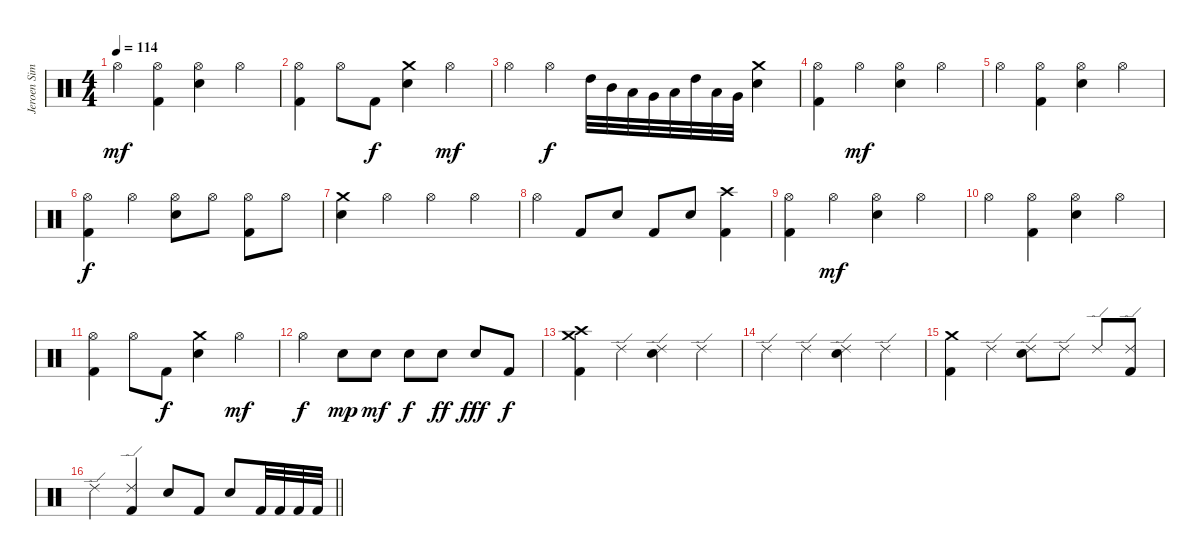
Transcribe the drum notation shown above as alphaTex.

\track ("Jeroen Simons" "Jeroen Sim") {instrument percussion}
\staff {score}
\articulation defaults
\ts (4 4)
\tempo 114
\clef neutral
\ks c "Hi-Hat (open)".4{dy mf}
("Hi-Hat (open)" "Kick (hit) 2").4 ("Hi-Hat (open)" "Electric Snare (hit)").4 "Hi-Hat (open)".4 |
("Hi-Hat (open)" "Kick (hit) 2").4 "Hi-Hat (open)".8 "Kick (hit) 2".8{dy f} ("Crash medium (hit)" "Electric Snare (hit)").4 "Hi-Hat (open)".4{dy mf} |
"Hi-Hat (open)".4 "Hi-Hat (open)".4{dy f} "High Tom (hit)".32 "Mid Tom (hit)".32 "Low Tom (hit)".32 "Very Low Tom (hit)".32 "Low Floor Tom (hit)".32 "High Tom (hit)".32 "Low Floor Tom (hit)".32 "Very Low Tom (hit)".32 ("Crash medium (hit)" "Electric Snare (hit)").4 |
("Hi-Hat (open)" "Kick (hit) 2").4 "Hi-Hat (open)".4{dy mf} ("Hi-Hat (open)" "Electric Snare (hit)").4 "Hi-Hat (open)".4 |
"Hi-Hat (open)".4 ("Hi-Hat (open)" "Kick (hit) 2").4 ("Hi-Hat (open)" "Electric Snare (hit)").4 "Hi-Hat (open)".4 |
("Hi-Hat (open)" "Kick (hit) 2").4{dy f} "Hi-Hat (open)".4 ("Hi-Hat (open)" "Electric Snare (hit)").8 "Hi-Hat (open)".8 ("Hi-Hat (open)" "Kick (hit) 2").8 "Hi-Hat (open)".8 |
("Crash medium (hit)" "Electric Snare (hit)").4 "Hi-Hat (open)".4 "Hi-Hat (open)".4 "Hi-Hat (open)".4 |
"Hi-Hat (open)".4 "Kick (hit) 2".8 "Electric Snare (hit)".8 "Kick (hit) 2".8 "Electric Snare (hit)".8 ("Crash high (hit)" "Kick (hit) 2").4 |
("Hi-Hat (open)" "Kick (hit) 2").4 "Hi-Hat (open)".4{dy mf} ("Hi-Hat (open)" "Electric Snare (hit)").4 "Hi-Hat (open)".4 |
"Hi-Hat (open)".4 ("Hi-Hat (open)" "Kick (hit) 2").4 ("Hi-Hat (open)" "Electric Snare (hit)").4 "Hi-Hat (open)".4 |
("Hi-Hat (open)" "Kick (hit) 2").4 "Hi-Hat (open)".8 "Kick (hit) 2".8{dy f} ("Crash medium (hit)" "Electric Snare (hit)").4 "Hi-Hat (open)".4{dy mf} |
"Hi-Hat (open)".4{dy f} "Electric Snare (hit)".8{dy mp} "Electric Snare (hit)".8{dy mf} "Electric Snare (hit)".8{dy f} "Electric Snare (hit)".8{dy ff} "Electric Snare (hit)".8{dy fff} "Kick (hit) 2".8{dy f} |
("Crash high (hit)" "Crash medium (hit)" "Kick (hit) 2").4 "Ride (edge) 2".4 ("Ride (edge) 2" "Electric Snare (hit)").4 "Ride (edge) 2".4 |
"Ride (edge) 2".4 "Ride (edge) 2".4 ("Ride (edge) 2" "Electric Snare (hit)").4 "Ride (edge) 2".4 |
("Crash medium (hit)" "Kick (hit) 2").4 "Ride (edge) 2".4 ("Ride (edge) 2" "Electric Snare (hit)").8 "Ride (edge) 2".8 "Ride (edge) 2".8 ("Ride (edge) 2" "Kick (hit) 2").8 |
\barLineRight lightlight "Ride (edge) 2".4
("Ride (edge) 2" "Kick (hit) 2").4 "Electric Snare (hit)".8 "Kick (hit) 2".8 "Electric Snare (hit)".8 "Kick (hit) 2".32 "Kick (hit) 2".32 "Kick (hit) 2".32 "Kick (hit) 2".32
